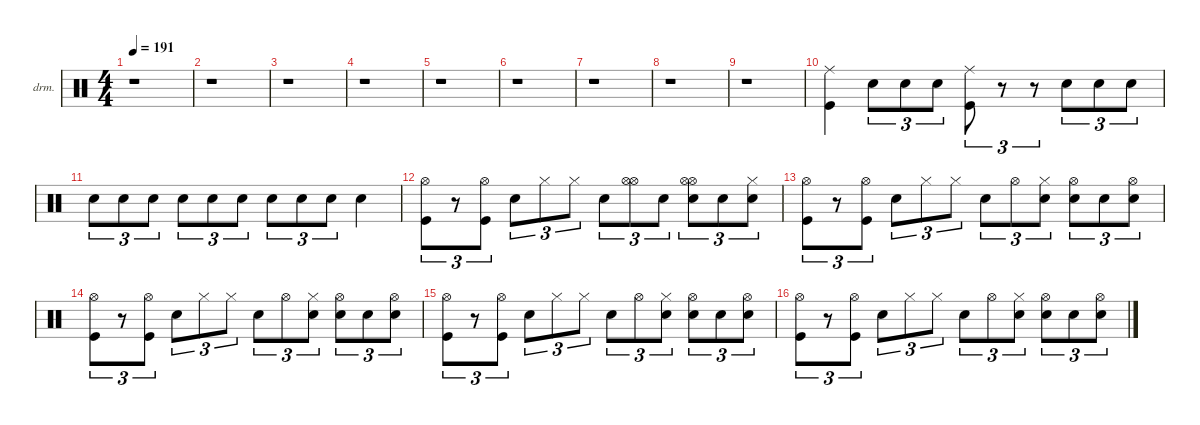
\defaultSystemsLayout 4
\hideDynamics
\bracketExtendMode nobrackets
\firstSystemTrackNameOrientation horizontal
\otherSystemsTrackNameOrientation horizontal
\track ("Drumkit" "drm.") {instrument percussion}
\staff {score}
\articulation defaults
\ts (4 4)
\tempo 191
\clef neutral
\ks c
r.1{dy f beam Down} |
r.1{beam Down} |
r.1{beam Down} |
r.1{beam Down} |
r.1{beam Down} |
r.1{beam Down} |
r.1{beam Down} |
r.1{beam Down} |
r.1{beam Down} |
("Kick (hit)" "Ride (middle)").4{dy mp beam Down} "Snare (hit) 2".8{tu (3 2) dy p beam Down} "Snare (hit) 2".8{tu (3 2) beam Down} "Snare (hit) 2".8{tu (3 2) beam Down} ("Ride (middle)" "Kick (hit)").8{tu (3 2) dy mp beam Down} r.8{tu (3 2) beam Down} r.8{tu (3 2) beam Down} "Snare (hit) 2".8{tu (3 2) dy f beam Down} "Snare (hit) 2".8{tu (3 2) beam Down} "Snare (hit) 2".8{tu (3 2) beam Down} |
"Snare (hit) 2".8{tu (3 2) dy mf beam Down} "Snare (hit) 2".8{tu (3 2) dy p beam Down} "Snare (hit) 2".8{tu (3 2) beam Down} "Snare (hit) 2".8{tu (3 2) dy mf beam Down} "Snare (hit) 2".8{tu (3 2) dy p beam Down} "Snare (hit) 2".8{tu (3 2) beam Down} "Snare (hit) 2".8{tu (3 2) dy mp beam Down} "Snare (hit) 2".8{tu (3 2) dy mf beam Down} "Snare (hit) 2".8{tu (3 2) dy f beam Down} "Snare (hit) 2".4{beam Down} |
("Kick (hit)" "Hi-Hat (open)").8{tu (3 2) dy mf beam Down} r.8{tu (3 2) beam Down} ("Kick (hit)" "Hi-Hat (open)").8{tu (3 2) beam Down} "Snare (hit) 2".8{tu (3 2) dy mp beam Down} "Hi-Hat (closed)".8{tu (3 2) dy f beam Down} "Hi-Hat (closed)".8{tu (3 2) beam Down} "Snare (hit) 2".8{tu (3 2) beam Down} ("Hi-Hat (open)" "Hi-Hat (open)").8{tu (3 2) beam Down} "Snare (hit) 2".8{tu (3 2) dy mp beam Down} ("Hi-Hat (open)" "Hi-Hat (open)" "Snare (hit) 2").8{tu (3 2) dy f beam Down} "Snare (hit) 2".8{tu (3 2) dy mp beam Down} ("Hi-Hat (closed)" "Snare (hit) 2").8{tu (3 2) dy f beam Down} |
("Kick (hit)" "Hi-Hat (open)").8{tu (3 2) dy mf beam Down} r.8{tu (3 2) beam Down} ("Kick (hit)" "Hi-Hat (open)").8{tu (3 2) beam Down} "Snare (hit) 2".8{tu (3 2) dy mp beam Down} "Hi-Hat (closed)".8{tu (3 2) beam Down} "Hi-Hat (closed)".8{tu (3 2) beam Down} "Snare (hit) 2".8{tu (3 2) dy f beam Down} "Hi-Hat (open)".8{tu (3 2) dy mp beam Down} ("Hi-Hat (closed)" "Snare (hit) 2").8{tu (3 2) dy p beam Down} ("Hi-Hat (open)" "Snare (hit) 2").8{tu (3 2) dy mp beam Down} "Snare (hit) 2".8{tu (3 2) beam Down} ("Snare (hit) 2" "Hi-Hat (open)").8{tu (3 2) beam Down} |
("Kick (hit)" "Hi-Hat (open)").8{tu (3 2) dy mf beam Down} r.8{tu (3 2) beam Down} ("Kick (hit)" "Hi-Hat (open)").8{tu (3 2) beam Down} "Snare (hit) 2".8{tu (3 2) dy mp beam Down} "Hi-Hat (closed)".8{tu (3 2) beam Down} "Hi-Hat (closed)".8{tu (3 2) beam Down} "Snare (hit) 2".8{tu (3 2) dy f beam Down} "Hi-Hat (open)".8{tu (3 2) dy mp beam Down} ("Hi-Hat (closed)" "Snare (hit) 2").8{tu (3 2) dy p beam Down} ("Hi-Hat (open)" "Snare (hit) 2").8{tu (3 2) dy mp beam Down} "Snare (hit) 2".8{tu (3 2) beam Down} ("Snare (hit) 2" "Hi-Hat (open)").8{tu (3 2) beam Down} |
("Kick (hit)" "Hi-Hat (open)").8{tu (3 2) dy mf beam Down} r.8{tu (3 2) beam Down} ("Kick (hit)" "Hi-Hat (open)").8{tu (3 2) beam Down} "Snare (hit) 2".8{tu (3 2) dy mp beam Down} "Hi-Hat (closed)".8{tu (3 2) beam Down} "Hi-Hat (closed)".8{tu (3 2) beam Down} "Snare (hit) 2".8{tu (3 2) dy f beam Down} "Hi-Hat (open)".8{tu (3 2) dy mp beam Down} ("Hi-Hat (closed)" "Snare (hit) 2").8{tu (3 2) dy p beam Down} ("Hi-Hat (open)" "Snare (hit) 2").8{tu (3 2) dy mp beam Down} "Snare (hit) 2".8{tu (3 2) beam Down} ("Snare (hit) 2" "Hi-Hat (open)").8{tu (3 2) beam Down} |
("Kick (hit)" "Hi-Hat (open)").8{tu (3 2) dy mf beam Down} r.8{tu (3 2) beam Down} ("Kick (hit)" "Hi-Hat (open)").8{tu (3 2) beam Down} "Snare (hit) 2".8{tu (3 2) dy mp beam Down} "Hi-Hat (closed)".8{tu (3 2) beam Down} "Hi-Hat (closed)".8{tu (3 2) beam Down} "Snare (hit) 2".8{tu (3 2) dy f beam Down} "Hi-Hat (open)".8{tu (3 2) dy mp beam Down} ("Hi-Hat (closed)" "Snare (hit) 2").8{tu (3 2) dy p beam Down} ("Hi-Hat (open)" "Snare (hit) 2").8{tu (3 2) dy mp beam Down} "Snare (hit) 2".8{tu (3 2) beam Down} ("Snare (hit) 2" "Hi-Hat (open)").8{tu (3 2) beam Down}
